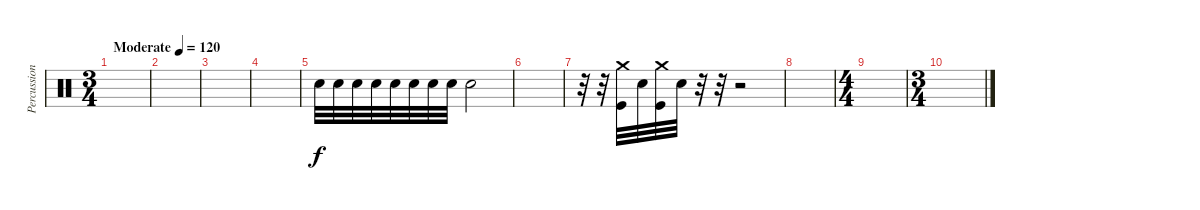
\track ("Percussion" "Percussion") {instrument percussion}
\staff {score}
\articulation defaults
\ts (3 4)
\tempo (120 "Moderate")
\clef neutral
\ks c
|
|
|
|
"Snare (hit) 2".32 "Snare (hit) 2".32 "Snare (hit) 2".32 "Snare (hit) 2".32 "Snare (hit) 2".32 "Snare (hit) 2".32 "Snare (hit) 2".32 "Snare (hit) 2".32 "Snare (hit) 2".2 |
|
r.32 r.32 ("Crash medium (hit)" "Kick (hit)").32 "Snare (hit) 2".32 ("Crash medium (hit)" "Kick (hit)").32 "Snare (hit) 2".32 r.32 r.32 r.2 |
|
\ts (4 4)
|
\ts (3 4)
